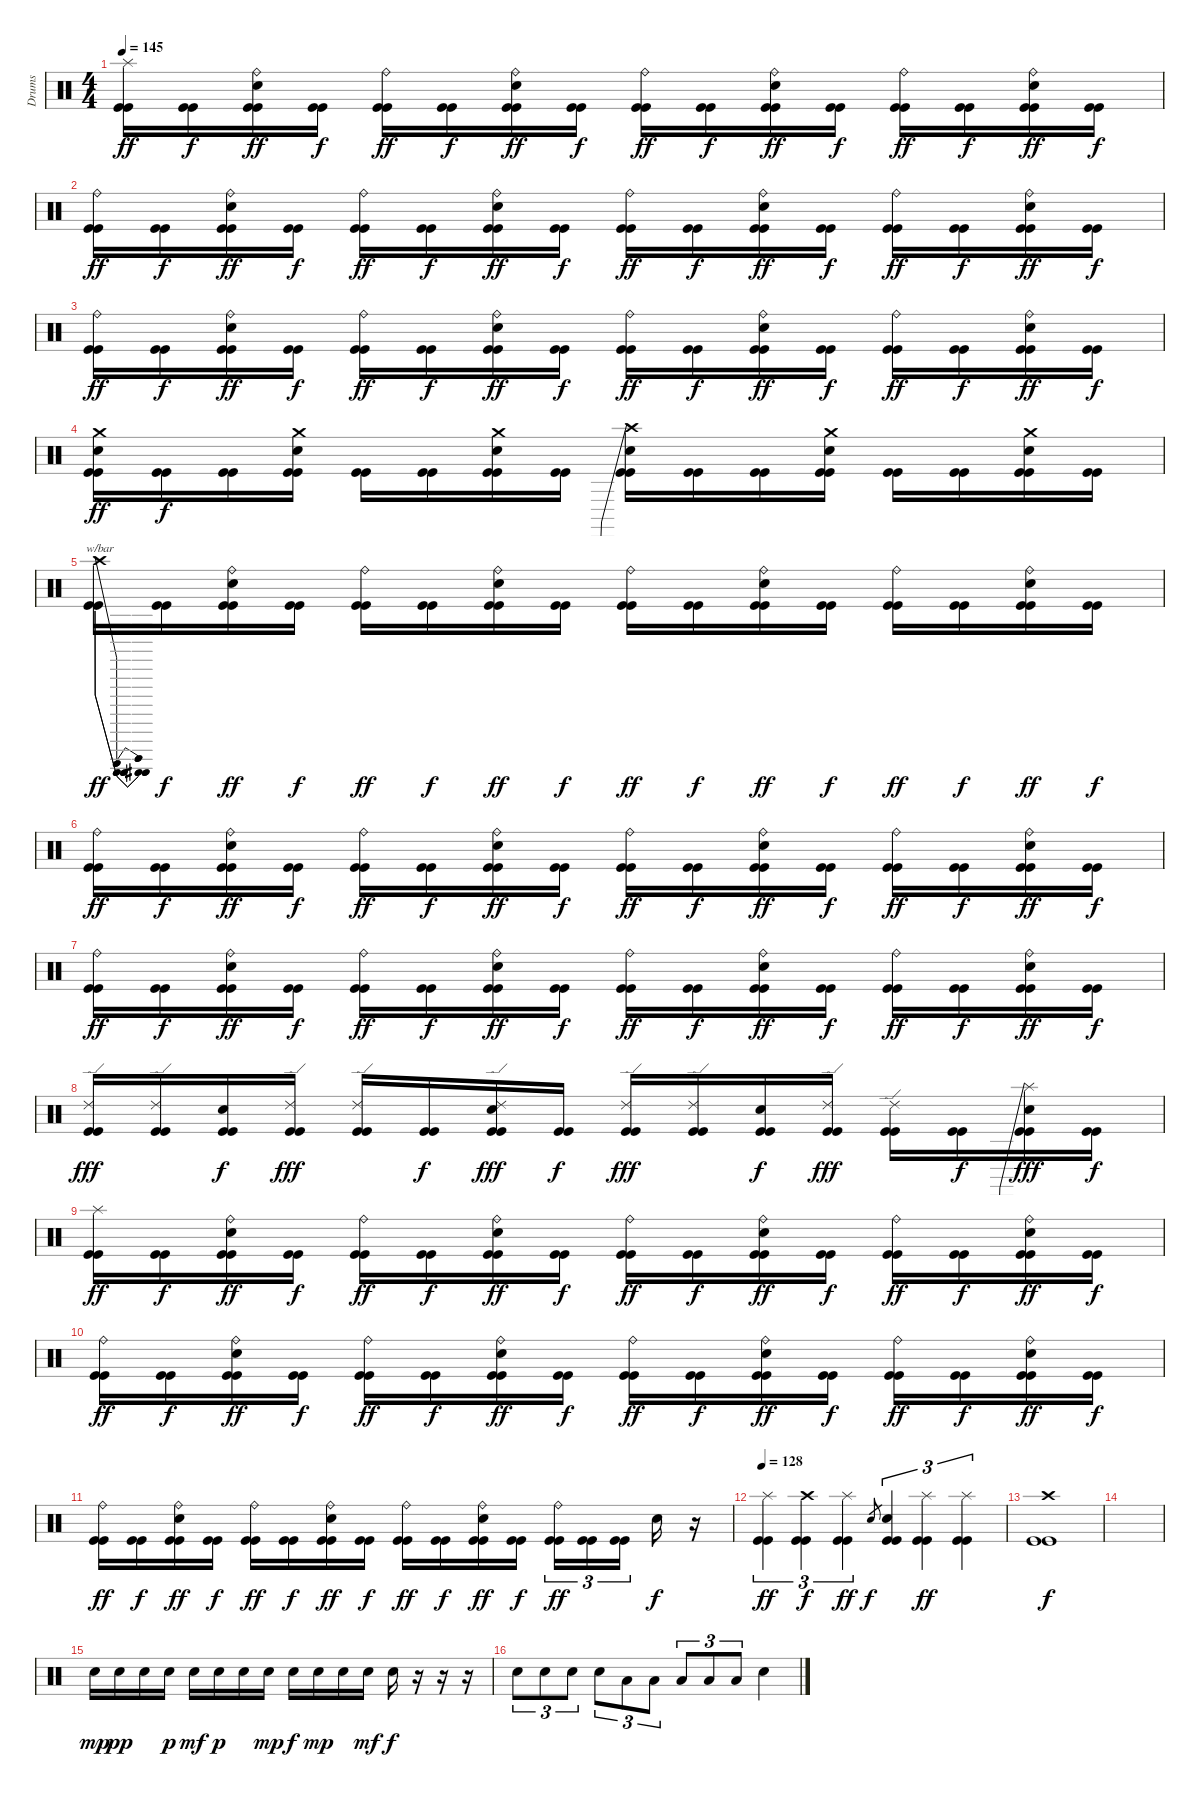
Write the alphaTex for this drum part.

\track ("Drums" "Drums") {instrument percussion}
\staff {score}
\articulation defaults
\ts (4 4)
\tempo 145
\clef neutral
\ks c
("Splash (hit)" "Kick (hit)" "Kick (hit)").16{dy ff} ("Kick (hit)" "Kick (hit)").16{dy f} ("Ride (bell)" "Electric Snare (hit)" "Kick (hit)" "Kick (hit)").16{dy ff} ("Kick (hit)" "Kick (hit)").16{dy f} ("Ride (bell)" "Kick (hit)" "Kick (hit)").16{dy ff} ("Kick (hit)" "Kick (hit)").16{dy f} ("Ride (bell)" "Electric Snare (hit)" "Kick (hit)" "Kick (hit)").16{dy ff} ("Kick (hit)" "Kick (hit)").16{dy f} ("Ride (bell)" "Kick (hit)" "Kick (hit)").16{dy ff} ("Kick (hit)" "Kick (hit)").16{dy f} ("Ride (bell)" "Electric Snare (hit)" "Kick (hit)" "Kick (hit)").16{dy ff} ("Kick (hit)" "Kick (hit)").16{dy f} ("Ride (bell)" "Kick (hit)" "Kick (hit)").16{dy ff} ("Kick (hit)" "Kick (hit)").16{dy f} ("Ride (bell)" "Electric Snare (hit)" "Kick (hit)" "Kick (hit)").16{dy ff} ("Kick (hit)" "Kick (hit)").16{dy f} |
("Ride (bell)" "Kick (hit)" "Kick (hit)").16{dy ff} ("Kick (hit)" "Kick (hit)").16{dy f} ("Ride (bell)" "Electric Snare (hit)" "Kick (hit)" "Kick (hit)").16{dy ff} ("Kick (hit)" "Kick (hit)").16{dy f} ("Ride (bell)" "Kick (hit)" "Kick (hit)").16{dy ff} ("Kick (hit)" "Kick (hit)").16{dy f} ("Ride (bell)" "Electric Snare (hit)" "Kick (hit)" "Kick (hit)").16{dy ff} ("Kick (hit)" "Kick (hit)").16{dy f} ("Ride (bell)" "Kick (hit)" "Kick (hit)").16{dy ff} ("Kick (hit)" "Kick (hit)").16{dy f} ("Ride (bell)" "Electric Snare (hit)" "Kick (hit)" "Kick (hit)").16{dy ff} ("Kick (hit)" "Kick (hit)").16{dy f} ("Ride (bell)" "Kick (hit)" "Kick (hit)").16{dy ff} ("Kick (hit)" "Kick (hit)").16{dy f} ("Ride (bell)" "Electric Snare (hit)" "Kick (hit)" "Kick (hit)").16{dy ff} ("Kick (hit)" "Kick (hit)").16{dy f} |
("Ride (bell)" "Kick (hit)" "Kick (hit)").16{dy ff} ("Kick (hit)" "Kick (hit)").16{dy f} ("Ride (bell)" "Electric Snare (hit)" "Kick (hit)" "Kick (hit)").16{dy ff} ("Kick (hit)" "Kick (hit)").16{dy f} ("Ride (bell)" "Kick (hit)" "Kick (hit)").16{dy ff} ("Kick (hit)" "Kick (hit)").16{dy f} ("Ride (bell)" "Electric Snare (hit)" "Kick (hit)" "Kick (hit)").16{dy ff} ("Kick (hit)" "Kick (hit)").16{dy f} ("Ride (bell)" "Kick (hit)" "Kick (hit)").16{dy ff} ("Kick (hit)" "Kick (hit)").16{dy f} ("Ride (bell)" "Electric Snare (hit)" "Kick (hit)" "Kick (hit)").16{dy ff} ("Kick (hit)" "Kick (hit)").16{dy f} ("Ride (bell)" "Kick (hit)" "Kick (hit)").16{dy ff} ("Kick (hit)" "Kick (hit)").16{dy f} ("Ride (bell)" "Electric Snare (hit)" "Kick (hit)" "Kick (hit)").16{dy ff} ("Kick (hit)" "Kick (hit)").16{dy f} |
("Crash medium (hit)" "Electric Snare (hit)" "Kick (hit)" "Kick (hit)").16{dy ff} ("Kick (hit)" "Kick (hit)").16{dy f} ("Kick (hit)" "Kick (hit)").16 ("Crash medium (hit)" "Electric Snare (hit)" "Kick (hit)" "Kick (hit)").16 ("Kick (hit)" "Kick (hit)").16 ("Kick (hit)" "Kick (hit)").16 ("Crash medium (hit)" "Electric Snare (hit)" "Kick (hit)" "Kick (hit)").16 ("Kick (hit)" "Kick (hit)").16 ("Crash high (hit)"{be (prebend 0 2 60 2)} "Electric Snare (hit)" "Kick (hit)" "Kick (hit)").16 ("Kick (hit)" "Kick (hit)").16 ("Kick (hit)" "Kick (hit)").16 ("Crash medium (hit)" "Electric Snare (hit)" "Kick (hit)" "Kick (hit)").16 ("Kick (hit)" "Kick (hit)").16 ("Kick (hit)" "Kick (hit)").16 ("Crash medium (hit)" "Electric Snare (hit)" "Kick (hit)" "Kick (hit)").16 ("Kick (hit)" "Kick (hit)").16 |
("Crash high (hit)" "Kick (hit)" "Kick (hit)").16{tbe (dip default 0 0 30 -2 60 0) dy ff} ("Kick (hit)" "Kick (hit)").16{dy f} ("Ride (bell)" "Electric Snare (hit)" "Kick (hit)" "Kick (hit)").16{dy ff} ("Kick (hit)" "Kick (hit)").16{dy f} ("Ride (bell)" "Kick (hit)" "Kick (hit)").16{dy ff} ("Kick (hit)" "Kick (hit)").16{dy f} ("Ride (bell)" "Electric Snare (hit)" "Kick (hit)" "Kick (hit)").16{dy ff} ("Kick (hit)" "Kick (hit)").16{dy f} ("Ride (bell)" "Kick (hit)" "Kick (hit)").16{dy ff} ("Kick (hit)" "Kick (hit)").16{dy f} ("Ride (bell)" "Electric Snare (hit)" "Kick (hit)" "Kick (hit)").16{dy ff} ("Kick (hit)" "Kick (hit)").16{dy f} ("Ride (bell)" "Kick (hit)" "Kick (hit)").16{dy ff} ("Kick (hit)" "Kick (hit)").16{dy f} ("Ride (bell)" "Electric Snare (hit)" "Kick (hit)" "Kick (hit)").16{dy ff} ("Kick (hit)" "Kick (hit)").16{dy f} |
("Ride (bell)" "Kick (hit)" "Kick (hit)").16{dy ff} ("Kick (hit)" "Kick (hit)").16{dy f} ("Ride (bell)" "Electric Snare (hit)" "Kick (hit)" "Kick (hit)").16{dy ff} ("Kick (hit)" "Kick (hit)").16{dy f} ("Ride (bell)" "Kick (hit)" "Kick (hit)").16{dy ff} ("Kick (hit)" "Kick (hit)").16{dy f} ("Ride (bell)" "Electric Snare (hit)" "Kick (hit)" "Kick (hit)").16{dy ff} ("Kick (hit)" "Kick (hit)").16{dy f} ("Ride (bell)" "Kick (hit)" "Kick (hit)").16{dy ff} ("Kick (hit)" "Kick (hit)").16{dy f} ("Ride (bell)" "Electric Snare (hit)" "Kick (hit)" "Kick (hit)").16{dy ff} ("Kick (hit)" "Kick (hit)").16{dy f} ("Ride (bell)" "Kick (hit)" "Kick (hit)").16{dy ff} ("Kick (hit)" "Kick (hit)").16{dy f} ("Ride (bell)" "Electric Snare (hit)" "Kick (hit)" "Kick (hit)").16{dy ff} ("Kick (hit)" "Kick (hit)").16{dy f} |
("Ride (bell)" "Kick (hit)" "Kick (hit)").16{dy ff} ("Kick (hit)" "Kick (hit)").16{dy f} ("Ride (bell)" "Electric Snare (hit)" "Kick (hit)" "Kick (hit)").16{dy ff} ("Kick (hit)" "Kick (hit)").16{dy f} ("Ride (bell)" "Kick (hit)" "Kick (hit)").16{dy ff} ("Kick (hit)" "Kick (hit)").16{dy f} ("Ride (bell)" "Electric Snare (hit)" "Kick (hit)" "Kick (hit)").16{dy ff} ("Kick (hit)" "Kick (hit)").16{dy f} ("Ride (bell)" "Kick (hit)" "Kick (hit)").16{dy ff} ("Kick (hit)" "Kick (hit)").16{dy f} ("Ride (bell)" "Electric Snare (hit)" "Kick (hit)" "Kick (hit)").16{dy ff} ("Kick (hit)" "Kick (hit)").16{dy f} ("Ride (bell)" "Kick (hit)" "Kick (hit)").16{dy ff} ("Kick (hit)" "Kick (hit)").16{dy f} ("Ride (bell)" "Electric Snare (hit)" "Kick (hit)" "Kick (hit)").16{dy ff} ("Kick (hit)" "Kick (hit)").16{dy f} |
("Ride (edge) 2" "Kick (hit)" "Kick (hit)").16{dy fff} ("Ride (edge) 2" "Kick (hit)" "Kick (hit)").16 ("Electric Snare (hit)" "Kick (hit)" "Kick (hit)").16{dy f} ("Ride (edge) 2" "Kick (hit)" "Kick (hit)").16{dy fff} ("Ride (edge) 2" "Kick (hit)" "Kick (hit)").16 ("Kick (hit)" "Kick (hit)").16{dy f} ("Ride (edge) 2" "Electric Snare (hit)" "Kick (hit)" "Kick (hit)").16{dy fff} ("Kick (hit)" "Kick (hit)").16{dy f} ("Ride (edge) 2" "Kick (hit)" "Kick (hit)").16{dy fff} ("Ride (edge) 2" "Kick (hit)" "Kick (hit)").16 ("Electric Snare (hit)" "Kick (hit)" "Kick (hit)").16{dy f} ("Ride (edge) 2" "Kick (hit)" "Kick (hit)").16{dy fff} ("Ride (edge) 2" "Kick (hit)" "Kick (hit)").16 ("Kick (hit)" "Kick (hit)").16{dy f} ("Splash (hit)"{be (prebend 0 3 60 3)} "Electric Snare (hit)" "Kick (hit)" "Kick (hit)").16{dy fff} ("Kick (hit)" "Kick (hit)").16{dy f} |
("Splash (hit)" "Kick (hit)" "Kick (hit)").16{dy ff} ("Kick (hit)" "Kick (hit)").16{dy f} ("Ride (bell)" "Electric Snare (hit)" "Kick (hit)" "Kick (hit)").16{dy ff} ("Kick (hit)" "Kick (hit)").16{dy f} ("Ride (bell)" "Kick (hit)" "Kick (hit)").16{dy ff} ("Kick (hit)" "Kick (hit)").16{dy f} ("Ride (bell)" "Electric Snare (hit)" "Kick (hit)" "Kick (hit)").16{dy ff} ("Kick (hit)" "Kick (hit)").16{dy f} ("Ride (bell)" "Kick (hit)" "Kick (hit)").16{dy ff} ("Kick (hit)" "Kick (hit)").16{dy f} ("Ride (bell)" "Electric Snare (hit)" "Kick (hit)" "Kick (hit)").16{dy ff} ("Kick (hit)" "Kick (hit)").16{dy f} ("Ride (bell)" "Kick (hit)" "Kick (hit)").16{dy ff} ("Kick (hit)" "Kick (hit)").16{dy f} ("Ride (bell)" "Electric Snare (hit)" "Kick (hit)" "Kick (hit)").16{dy ff} ("Kick (hit)" "Kick (hit)").16{dy f} |
("Ride (bell)" "Kick (hit)" "Kick (hit)").16{dy ff} ("Kick (hit)" "Kick (hit)").16{dy f} ("Ride (bell)" "Electric Snare (hit)" "Kick (hit)" "Kick (hit)").16{dy ff} ("Kick (hit)" "Kick (hit)").16{dy f} ("Ride (bell)" "Kick (hit)" "Kick (hit)").16{dy ff} ("Kick (hit)" "Kick (hit)").16{dy f} ("Ride (bell)" "Electric Snare (hit)" "Kick (hit)" "Kick (hit)").16{dy ff} ("Kick (hit)" "Kick (hit)").16{dy f} ("Ride (bell)" "Kick (hit)" "Kick (hit)").16{dy ff} ("Kick (hit)" "Kick (hit)").16{dy f} ("Ride (bell)" "Electric Snare (hit)" "Kick (hit)" "Kick (hit)").16{dy ff} ("Kick (hit)" "Kick (hit)").16{dy f} ("Ride (bell)" "Kick (hit)" "Kick (hit)").16{dy ff} ("Kick (hit)" "Kick (hit)").16{dy f} ("Ride (bell)" "Electric Snare (hit)" "Kick (hit)" "Kick (hit)").16{dy ff} ("Kick (hit)" "Kick (hit)").16{dy f} |
("Ride (bell)" "Kick (hit)" "Kick (hit)").16{dy ff} ("Kick (hit)" "Kick (hit)").16{dy f} ("Ride (bell)" "Electric Snare (hit)" "Kick (hit)" "Kick (hit)").16{dy ff} ("Kick (hit)" "Kick (hit)").16{dy f} ("Ride (bell)" "Kick (hit)" "Kick (hit)").16{dy ff} ("Kick (hit)" "Kick (hit)").16{dy f} ("Ride (bell)" "Electric Snare (hit)" "Kick (hit)" "Kick (hit)").16{dy ff} ("Kick (hit)" "Kick (hit)").16{dy f} ("Ride (bell)" "Kick (hit)" "Kick (hit)").16{dy ff} ("Kick (hit)" "Kick (hit)").16{dy f} ("Ride (bell)" "Electric Snare (hit)" "Kick (hit)" "Kick (hit)").16{dy ff} ("Kick (hit)" "Kick (hit)").16{dy f} ("Ride (bell)" "Kick (hit)" "Kick (hit)").16{tu (3 2) dy ff} ("Kick (hit)" "Kick (hit)").16{tu (3 2)} ("Kick (hit)" "Kick (hit)").16{tu (3 2)} "Electric Snare (hit)".16{dy f} r.16 |
\tempo 128
("Splash (hit)" "Kick (hit)" "Kick (hit)").4{tu (3 2) dy ff} ("Crash high (hit)" "Kick (hit)" "Kick (hit)").4{tu (3 2) dy f} ("Splash (hit)" "Kick (hit)" "Kick (hit)").4{tu (3 2) dy ff} "Electric Snare (hit)".8{gr dy f} ("Electric Snare (hit)" "Kick (hit)" "Kick (hit)").4{tu (3 2)} ("Splash (hit)" "Kick (hit)" "Kick (hit)").4{tu (3 2) dy ff} ("Splash (hit)" "Kick (hit)" "Kick (hit)").4{tu (3 2)} |
("Crash high (hit)" "Kick (hit)" "Kick (hit)").1{dy f} |
|
"Electric Snare (hit)".16{dy mp} "Electric Snare (hit)".16{dy pp} "Electric Snare (hit)".16 "Electric Snare (hit)".16{dy p} "Electric Snare (hit)".16{dy mf} "Electric Snare (hit)".16{dy p} "Electric Snare (hit)".16 "Electric Snare (hit)".16{dy mp} "Electric Snare (hit)".16{dy f} "Electric Snare (hit)".16{dy mp} "Electric Snare (hit)".16 "Electric Snare (hit)".16{dy mf} "Electric Snare (hit)".16{dy f} r.16 r.16 r.16 |
"Electric Snare (hit)".8{tu (3 2)} "Electric Snare (hit)".8{tu (3 2)} "Electric Snare (hit)".8{tu (3 2)} "Electric Snare (hit)".8{tu (3 2)} "Low Tom (hit)".8{tu (3 2)} "Low Tom (hit)".8{tu (3 2)} "Low Tom (hit)".8{tu (3 2)} "Low Floor Tom (hit)".8{tu (3 2)} "Low Floor Tom (hit)".8{tu (3 2)} "Electric Snare (hit)".4
